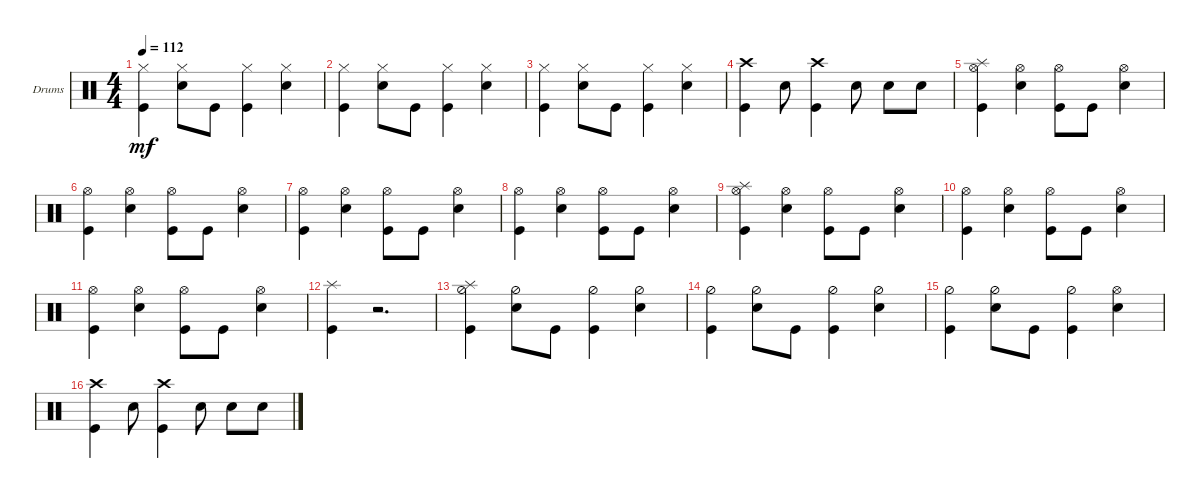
\defaultSystemsLayout 4
\bracketExtendMode groupsimilarinstruments
\firstSystemTrackNameOrientation horizontal
\otherSystemsTrackNameOrientation horizontal
\track ("Drumkit" "Drums") {instrument percussion}
\staff {score}
\articulation defaults
\ts (4 4)
\tempo 112
\clef neutral
\ks c
("Kick (hit)" "Hi-Hat (closed)").4{dy mf} ("Snare (hit) 2" "Hi-Hat (closed)").8 "Kick (hit)".8 ("Kick (hit)" "Hi-Hat (closed)").4 ("Snare (hit) 2" "Hi-Hat (closed)").4 |
("Kick (hit)" "Hi-Hat (closed)").4 ("Snare (hit) 2" "Hi-Hat (closed)").8 "Kick (hit)".8 ("Kick (hit)" "Hi-Hat (closed)").4 ("Snare (hit) 2" "Hi-Hat (closed)").4 |
("Kick (hit)" "Hi-Hat (closed)").4 ("Snare (hit) 2" "Hi-Hat (closed)").8 "Kick (hit)".8 ("Kick (hit)" "Hi-Hat (closed)").4 ("Snare (hit) 2" "Hi-Hat (closed)").4 |
("Kick (hit)" "Crash high (hit)").4 "Snare (hit) 2".8 ("Kick (hit)" "Crash high (hit)").4 "Snare (hit) 2".8 "Snare (hit) 2".8 "Snare (hit) 2".8 |
("Kick (hit)" "Hi-Hat (open)" "Splash (hit)").4 ("Hi-Hat (open)" "Snare (hit) 2").4 ("Hi-Hat (open)" "Kick (hit)").8 "Kick (hit)".8 ("Hi-Hat (open)" "Snare (hit) 2").4 |
("Kick (hit)" "Hi-Hat (open)").4 ("Hi-Hat (open)" "Snare (hit) 2").4 ("Hi-Hat (open)" "Kick (hit)").8 "Kick (hit)".8 ("Hi-Hat (open)" "Snare (hit) 2").4 |
("Kick (hit)" "Hi-Hat (open)").4 ("Hi-Hat (open)" "Snare (hit) 2").4 ("Hi-Hat (open)" "Kick (hit)").8 "Kick (hit)".8 ("Hi-Hat (open)" "Snare (hit) 2").4 |
("Kick (hit)" "Hi-Hat (open)").4 ("Hi-Hat (open)" "Snare (hit) 2").4 ("Hi-Hat (open)" "Kick (hit)").8 "Kick (hit)".8 ("Hi-Hat (open)" "Snare (hit) 2").4 |
("Kick (hit)" "Hi-Hat (open)" "Splash (hit)").4 ("Hi-Hat (open)" "Snare (hit) 2").4 ("Hi-Hat (open)" "Kick (hit)").8 "Kick (hit)".8 ("Hi-Hat (open)" "Snare (hit) 2").4 |
("Kick (hit)" "Hi-Hat (open)").4 ("Hi-Hat (open)" "Snare (hit) 2").4 ("Hi-Hat (open)" "Kick (hit)").8 "Kick (hit)".8 ("Hi-Hat (open)" "Snare (hit) 2").4 |
("Kick (hit)" "Hi-Hat (open)").4 ("Hi-Hat (open)" "Snare (hit) 2").4 ("Hi-Hat (open)" "Kick (hit)").8 "Kick (hit)".8 ("Hi-Hat (open)" "Snare (hit) 2").4 |
("Kick (hit)" "Splash (hit)").4 r.2{d} |
("Kick (hit)" "Hi-Hat (half)" "Splash (hit)").4 ("Snare (hit) 2" "Hi-Hat (half)").8 "Kick (hit)".8 ("Kick (hit)" "Hi-Hat (half)").4 ("Snare (hit) 2" "Hi-Hat (half)").4 |
("Kick (hit)" "Hi-Hat (half)").4 ("Snare (hit) 2" "Hi-Hat (half)").8 "Kick (hit)".8 ("Kick (hit)" "Hi-Hat (half)").4 ("Snare (hit) 2" "Hi-Hat (half)").4 |
("Kick (hit)" "Hi-Hat (half)").4 ("Snare (hit) 2" "Hi-Hat (half)").8 "Kick (hit)".8 ("Kick (hit)" "Hi-Hat (half)").4 ("Snare (hit) 2" "Hi-Hat (open)").4 |
("Kick (hit)" "Crash high (hit)").4 "Snare (hit) 2".8 ("Kick (hit)" "Crash high (hit)").4 "Snare (hit) 2".8 "Snare (hit) 2".8 "Snare (hit) 2".8
